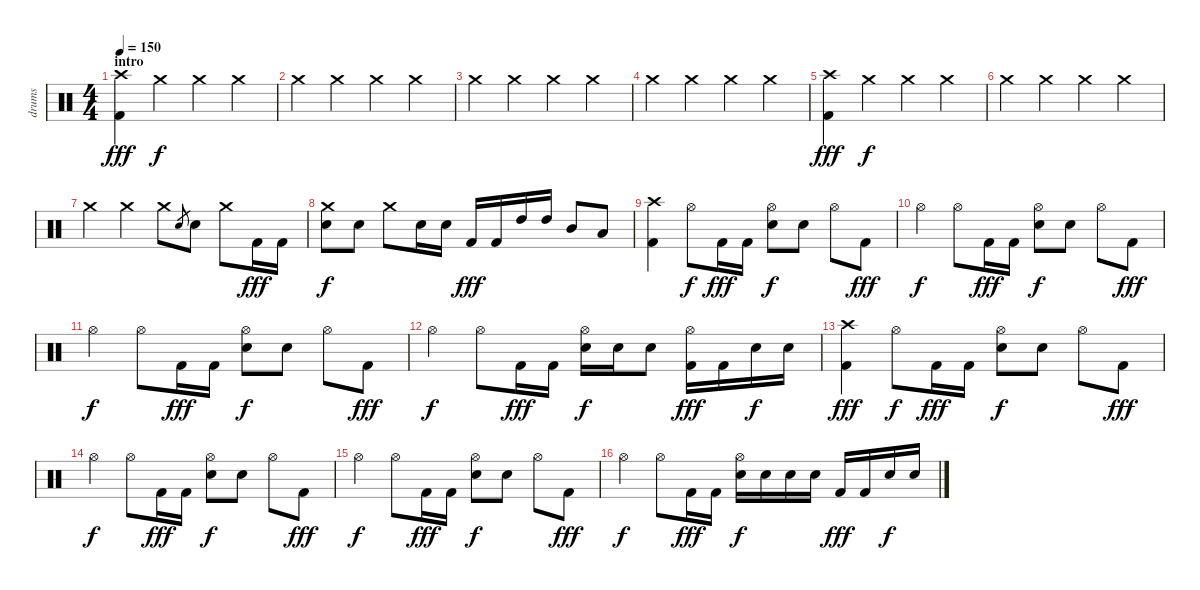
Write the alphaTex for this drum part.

\track ("drums" "drums") {instrument percussion}
\staff {score}
\articulation defaults
\ts (4 4)
\section ("" "intro")
\tempo 150
\clef neutral
\ks c
("Crash high (hit)" "Kick (hit) 2").4{dy fff} "Crash medium (hit)".4{dy f} "Crash medium (hit)".4 "Crash medium (hit)".4 |
"Crash medium (hit)".4 "Crash medium (hit)".4 "Crash medium (hit)".4 "Crash medium (hit)".4 |
"Crash medium (hit)".4 "Crash medium (hit)".4 "Crash medium (hit)".4 "Crash medium (hit)".4 |
"Crash medium (hit)".4 "Crash medium (hit)".4 "Crash medium (hit)".4 "Crash medium (hit)".4 |
("Crash high (hit)" "Kick (hit) 2").4{dy fff} "Crash medium (hit)".4{dy f} "Crash medium (hit)".4 "Crash medium (hit)".4 |
"Crash medium (hit)".4 "Crash medium (hit)".4 "Crash medium (hit)".4 "Crash medium (hit)".4 |
"Crash medium (hit)".4 "Crash medium (hit)".4 "Crash medium (hit)".8 "Snare (hit) 2".8{gr} "Snare (hit) 2".8 "Crash medium (hit)".8 "Kick (hit) 2".16{dy fff} "Kick (hit) 2".16 |
("Crash medium (hit)" "Snare (hit) 2").8{dy f} "Snare (hit) 2".8 "Crash medium (hit)".8 "Snare (hit) 2".16 "Snare (hit) 2".16 "Kick (hit) 2".16{dy fff} "Kick (hit) 2".16 "High Tom (hit)".16 "High Tom (hit)".16 "Mid Tom (hit)".8 "Low Tom (hit)".8 |
("Crash high (hit)" "Kick (hit) 2").4 "Hi-Hat (open)".8{dy f} "Kick (hit) 2".16{dy fff} "Kick (hit) 2".16 ("Hi-Hat (open)" "Snare (hit) 2").8{dy f} "Snare (hit) 2".8 "Hi-Hat (open)".8 "Kick (hit) 2".8{dy fff} |
"Hi-Hat (open)".4{dy f} "Hi-Hat (open)".8 "Kick (hit) 2".16{dy fff} "Kick (hit) 2".16 ("Hi-Hat (open)" "Snare (hit) 2").8{dy f} "Snare (hit) 2".8 "Hi-Hat (open)".8 "Kick (hit) 2".8{dy fff} |
"Hi-Hat (open)".4{dy f} "Hi-Hat (open)".8 "Kick (hit) 2".16{dy fff} "Kick (hit) 2".16 ("Hi-Hat (open)" "Snare (hit) 2").8{dy f} "Snare (hit) 2".8 "Hi-Hat (open)".8 "Kick (hit) 2".8{dy fff} |
"Hi-Hat (open)".4{dy f} "Hi-Hat (open)".8 "Kick (hit) 2".16{dy fff} "Kick (hit) 2".16 ("Hi-Hat (open)" "Snare (hit) 2").16{dy f} "Snare (hit) 2".16 "Snare (hit) 2".8 ("Hi-Hat (open)" "Kick (hit) 2").16{dy fff} "Kick (hit) 2".16 "Snare (hit) 2".16{dy f} "Snare (hit) 2".16 |
("Crash high (hit)" "Kick (hit) 2").4{dy fff} "Hi-Hat (open)".8{dy f} "Kick (hit) 2".16{dy fff} "Kick (hit) 2".16 ("Hi-Hat (open)" "Snare (hit) 2").8{dy f} "Snare (hit) 2".8 "Hi-Hat (open)".8 "Kick (hit) 2".8{dy fff} |
"Hi-Hat (open)".4{dy f} "Hi-Hat (open)".8 "Kick (hit) 2".16{dy fff} "Kick (hit) 2".16 ("Hi-Hat (open)" "Snare (hit) 2").8{dy f} "Snare (hit) 2".8 "Hi-Hat (open)".8 "Kick (hit) 2".8{dy fff} |
"Hi-Hat (open)".4{dy f} "Hi-Hat (open)".8 "Kick (hit) 2".16{dy fff} "Kick (hit) 2".16 ("Hi-Hat (open)" "Snare (hit) 2").8{dy f} "Snare (hit) 2".8 "Hi-Hat (open)".8 "Kick (hit) 2".8{dy fff} |
"Hi-Hat (open)".4{dy f} "Hi-Hat (open)".8 "Kick (hit) 2".16{dy fff} "Kick (hit) 2".16 ("Hi-Hat (open)" "Snare (hit) 2").16{dy f} "Snare (hit) 2".16 "Snare (hit) 2".16 "Snare (hit) 2".16 "Kick (hit) 2".16{dy fff} "Kick (hit) 2".16 "Snare (hit) 2".16{dy f} "Snare (hit) 2".16
